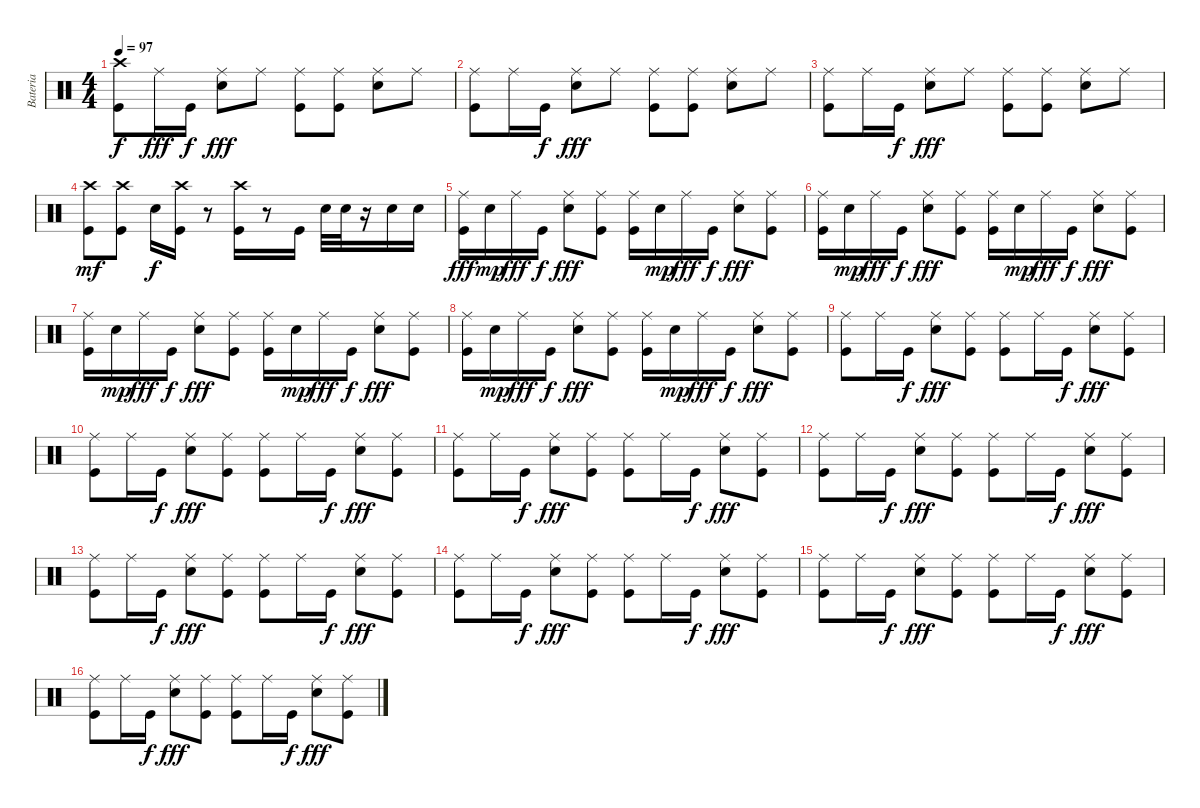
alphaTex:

\track ("Bateria" "Bateria") {instrument percussion}
\staff {score}
\articulation defaults
\ts (4 4)
\tempo 97
\clef neutral
\ks c
("Crash high (hit)" "Kick (hit)").8{dy f} "Ride (middle)".16{dy fff} "Kick (hit)".16{dy f} ("Electric Snare (hit)" "Ride (middle)").8{dy fff} "Ride (middle)".8 ("Kick (hit)" "Ride (middle)").8 ("Kick (hit)" "Ride (middle)").8 ("Electric Snare (hit)" "Ride (middle)").8 "Ride (middle)".8 |
("Kick (hit)" "Ride (middle)").8 "Ride (middle)".16 "Kick (hit)".16{dy f} ("Electric Snare (hit)" "Ride (middle)").8{dy fff} "Ride (middle)".8 ("Kick (hit)" "Ride (middle)").8 ("Kick (hit)" "Ride (middle)").8 ("Electric Snare (hit)" "Ride (middle)").8 "Ride (middle)".8 |
("Kick (hit)" "Ride (middle)").8 "Ride (middle)".16 "Kick (hit)".16{dy f} ("Electric Snare (hit)" "Ride (middle)").8{dy fff} "Ride (middle)".8 ("Kick (hit)" "Ride (middle)").8 ("Kick (hit)" "Ride (middle)").8 ("Electric Snare (hit)" "Ride (middle)").8 "Ride (middle)".8 |
("Crash high (hit)" "Kick (hit)").8{dy mf} ("Crash high (hit)" "Kick (hit)").8 "Electric Snare (hit)".16{dy f} ("Crash high (hit)" "Kick (hit)").16 r.8 ("Crash high (hit)" "Kick (hit)").16 r.8 "Kick (hit)".16 "Electric Snare (hit)".32 "Electric Snare (hit)".32 r.16 "Electric Snare (hit)".16 "Electric Snare (hit)".16 |
("Ride (middle)" "Kick (hit)").16{dy fff} "Electric Snare (hit)".16{dy mp} "Ride (middle)".16{dy fff} "Kick (hit)".16{dy f} ("Ride (middle)" "Electric Snare (hit)").8{dy fff} ("Ride (middle)" "Kick (hit)").8 ("Ride (middle)" "Kick (hit)").16 "Electric Snare (hit)".16{dy mp} "Ride (middle)".16{dy fff} "Kick (hit)".16{dy f} ("Ride (middle)" "Electric Snare (hit)").8{dy fff} ("Ride (middle)" "Kick (hit)").8 |
("Ride (middle)" "Kick (hit)").16 "Electric Snare (hit)".16{dy mp} "Ride (middle)".16{dy fff} "Kick (hit)".16{dy f} ("Ride (middle)" "Electric Snare (hit)").8{dy fff} ("Ride (middle)" "Kick (hit)").8 ("Ride (middle)" "Kick (hit)").16 "Electric Snare (hit)".16{dy mp} "Ride (middle)".16{dy fff} "Kick (hit)".16{dy f} ("Ride (middle)" "Electric Snare (hit)").8{dy fff} ("Ride (middle)" "Kick (hit)").8 |
("Ride (middle)" "Kick (hit)").16 "Electric Snare (hit)".16{dy mp} "Ride (middle)".16{dy fff} "Kick (hit)".16{dy f} ("Ride (middle)" "Electric Snare (hit)").8{dy fff} ("Ride (middle)" "Kick (hit)").8 ("Ride (middle)" "Kick (hit)").16 "Electric Snare (hit)".16{dy mp} "Ride (middle)".16{dy fff} "Kick (hit)".16{dy f} ("Ride (middle)" "Electric Snare (hit)").8{dy fff} ("Ride (middle)" "Kick (hit)").8 |
("Ride (middle)" "Kick (hit)").16 "Electric Snare (hit)".16{dy mp} "Ride (middle)".16{dy fff} "Kick (hit)".16{dy f} ("Ride (middle)" "Electric Snare (hit)").8{dy fff} ("Ride (middle)" "Kick (hit)").8 ("Ride (middle)" "Kick (hit)").16 "Electric Snare (hit)".16{dy mp} "Ride (middle)".16{dy fff} "Kick (hit)".16{dy f} ("Ride (middle)" "Electric Snare (hit)").8{dy fff} ("Ride (middle)" "Kick (hit)").8 |
("Ride (middle)" "Kick (hit)").8 "Ride (middle)".16 "Kick (hit)".16{dy f} ("Ride (middle)" "Electric Snare (hit)").8{dy fff} ("Ride (middle)" "Kick (hit)").8 ("Ride (middle)" "Kick (hit)").8 "Ride (middle)".16 "Kick (hit)".16{dy f} ("Ride (middle)" "Electric Snare (hit)").8{dy fff} ("Ride (middle)" "Kick (hit)").8 |
("Ride (middle)" "Kick (hit)").8 "Ride (middle)".16 "Kick (hit)".16{dy f} ("Ride (middle)" "Electric Snare (hit)").8{dy fff} ("Ride (middle)" "Kick (hit)").8 ("Ride (middle)" "Kick (hit)").8 "Ride (middle)".16 "Kick (hit)".16{dy f} ("Ride (middle)" "Electric Snare (hit)").8{dy fff} ("Ride (middle)" "Kick (hit)").8 |
("Ride (middle)" "Kick (hit)").8 "Ride (middle)".16 "Kick (hit)".16{dy f} ("Ride (middle)" "Electric Snare (hit)").8{dy fff} ("Ride (middle)" "Kick (hit)").8 ("Ride (middle)" "Kick (hit)").8 "Ride (middle)".16 "Kick (hit)".16{dy f} ("Ride (middle)" "Electric Snare (hit)").8{dy fff} ("Ride (middle)" "Kick (hit)").8 |
("Ride (middle)" "Kick (hit)").8 "Ride (middle)".16 "Kick (hit)".16{dy f} ("Ride (middle)" "Electric Snare (hit)").8{dy fff} ("Ride (middle)" "Kick (hit)").8 ("Ride (middle)" "Kick (hit)").8 "Ride (middle)".16 "Kick (hit)".16{dy f} ("Ride (middle)" "Electric Snare (hit)").8{dy fff} ("Ride (middle)" "Kick (hit)").8 |
("Ride (middle)" "Kick (hit)").8 "Ride (middle)".16 "Kick (hit)".16{dy f} ("Ride (middle)" "Electric Snare (hit)").8{dy fff} ("Ride (middle)" "Kick (hit)").8 ("Ride (middle)" "Kick (hit)").8 "Ride (middle)".16 "Kick (hit)".16{dy f} ("Ride (middle)" "Electric Snare (hit)").8{dy fff} ("Ride (middle)" "Kick (hit)").8 |
("Ride (middle)" "Kick (hit)").8 "Ride (middle)".16 "Kick (hit)".16{dy f} ("Ride (middle)" "Electric Snare (hit)").8{dy fff} ("Ride (middle)" "Kick (hit)").8 ("Ride (middle)" "Kick (hit)").8 "Ride (middle)".16 "Kick (hit)".16{dy f} ("Ride (middle)" "Electric Snare (hit)").8{dy fff} ("Ride (middle)" "Kick (hit)").8 |
("Ride (middle)" "Kick (hit)").8 "Ride (middle)".16 "Kick (hit)".16{dy f} ("Ride (middle)" "Electric Snare (hit)").8{dy fff} ("Ride (middle)" "Kick (hit)").8 ("Ride (middle)" "Kick (hit)").8 "Ride (middle)".16 "Kick (hit)".16{dy f} ("Ride (middle)" "Electric Snare (hit)").8{dy fff} ("Ride (middle)" "Kick (hit)").8 |
("Ride (middle)" "Kick (hit)").8 "Ride (middle)".16 "Kick (hit)".16{dy f} ("Ride (middle)" "Electric Snare (hit)").8{dy fff} ("Ride (middle)" "Kick (hit)").8 ("Ride (middle)" "Kick (hit)").8 "Ride (middle)".16 "Kick (hit)".16{dy f} ("Ride (middle)" "Electric Snare (hit)").8{dy fff} ("Ride (middle)" "Kick (hit)").8
